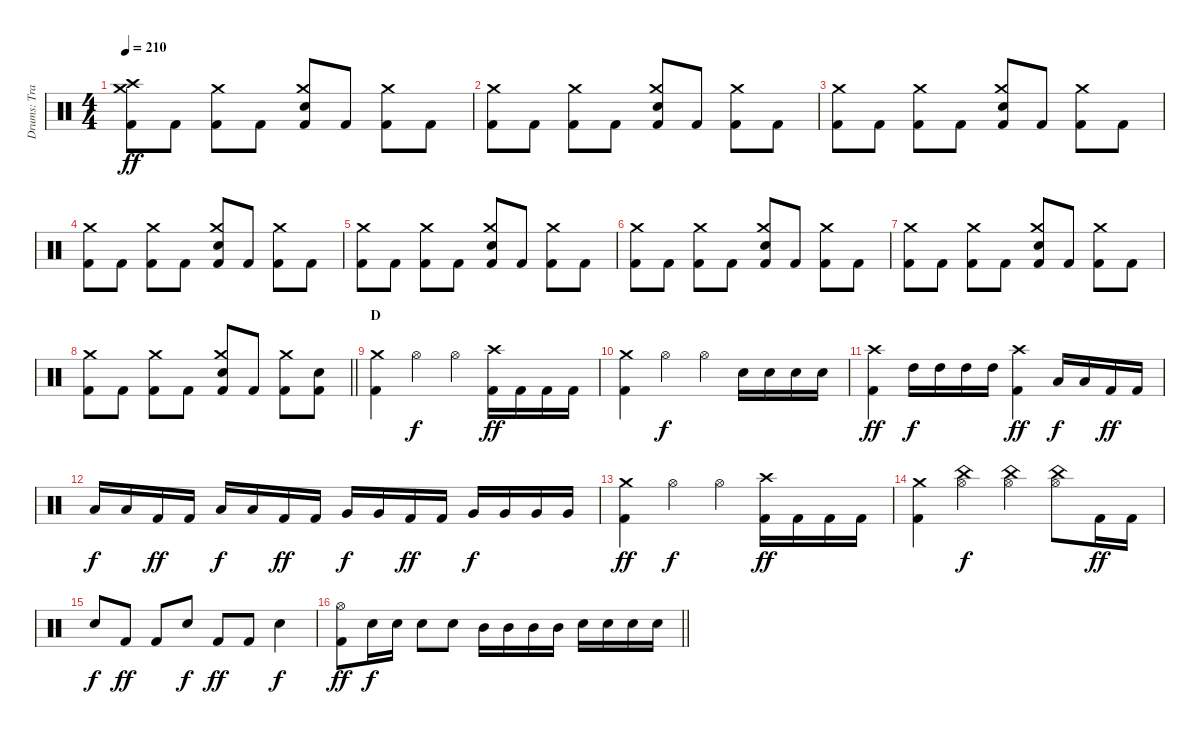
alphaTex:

\track ("Drums: Trav Clarke" "Drums: Tra") {instrument percussion}
\staff {score}
\articulation defaults
\ts (4 4)
\tempo 210
\clef neutral
\ks c
("Kick (hit) 2" "Crash high (hit)" "Crash medium (hit)").8{dy ff} "Kick (hit) 2".8 ("Kick (hit) 2" "Crash medium (hit)").8 "Kick (hit) 2".8 ("Kick (hit) 2" "Snare (hit) 2" "Crash medium (hit)").8 "Kick (hit) 2".8 ("Kick (hit) 2" "Crash medium (hit)").8 "Kick (hit) 2".8 |
("Kick (hit) 2" "Crash medium (hit)").8 "Kick (hit) 2".8 ("Kick (hit) 2" "Crash medium (hit)").8 "Kick (hit) 2".8 ("Kick (hit) 2" "Snare (hit) 2" "Crash medium (hit)").8 "Kick (hit) 2".8 ("Kick (hit) 2" "Crash medium (hit)").8 "Kick (hit) 2".8 |
("Kick (hit) 2" "Crash medium (hit)").8 "Kick (hit) 2".8 ("Kick (hit) 2" "Crash medium (hit)").8 "Kick (hit) 2".8 ("Kick (hit) 2" "Snare (hit) 2" "Crash medium (hit)").8 "Kick (hit) 2".8 ("Kick (hit) 2" "Crash medium (hit)").8 "Kick (hit) 2".8 |
("Kick (hit) 2" "Crash medium (hit)").8 "Kick (hit) 2".8 ("Kick (hit) 2" "Crash medium (hit)").8 "Kick (hit) 2".8 ("Kick (hit) 2" "Snare (hit) 2" "Crash medium (hit)").8 "Kick (hit) 2".8 ("Kick (hit) 2" "Crash medium (hit)").8 "Kick (hit) 2".8 |
("Kick (hit) 2" "Crash medium (hit)").8 "Kick (hit) 2".8 ("Kick (hit) 2" "Crash medium (hit)").8 "Kick (hit) 2".8 ("Kick (hit) 2" "Snare (hit) 2" "Crash medium (hit)").8 "Kick (hit) 2".8 ("Kick (hit) 2" "Crash medium (hit)").8 "Kick (hit) 2".8 |
("Kick (hit) 2" "Crash medium (hit)").8 "Kick (hit) 2".8 ("Kick (hit) 2" "Crash medium (hit)").8 "Kick (hit) 2".8 ("Kick (hit) 2" "Snare (hit) 2" "Crash medium (hit)").8 "Kick (hit) 2".8 ("Kick (hit) 2" "Crash medium (hit)").8 "Kick (hit) 2".8 |
("Kick (hit) 2" "Crash medium (hit)").8 "Kick (hit) 2".8 ("Kick (hit) 2" "Crash medium (hit)").8 "Kick (hit) 2".8 ("Kick (hit) 2" "Snare (hit) 2" "Crash medium (hit)").8 "Kick (hit) 2".8 ("Kick (hit) 2" "Crash medium (hit)").8 "Kick (hit) 2".8 |
\barLineRight lightlight
("Kick (hit) 2" "Crash medium (hit)").8 "Kick (hit) 2".8 ("Kick (hit) 2" "Crash medium (hit)").8 "Kick (hit) 2".8 ("Kick (hit) 2" "Snare (hit) 2" "Crash medium (hit)").8 "Kick (hit) 2".8 ("Kick (hit) 2" "Crash medium (hit)").8 ("Kick (hit) 2" "Snare (hit) 2").8 |
\section ("" "D")
("Kick (hit) 2" "Crash medium (hit)").4 "Hi-Hat (open)".4{dy f} "Hi-Hat (open)".4 ("Kick (hit) 2" "Crash high (hit)").16{dy ff} "Kick (hit) 2".16 "Kick (hit) 2".16 "Kick (hit) 2".16 |
("Kick (hit) 2" "Crash medium (hit)").4 "Hi-Hat (open)".4{dy f} "Hi-Hat (open)".4 "Snare (hit) 2".16 "Snare (hit) 2".16 "Snare (hit) 2".16 "Snare (hit) 2".16 |
("Kick (hit) 2" "Crash high (hit)").4{dy ff} "High Tom (hit)".16{dy f} "High Tom (hit)".16 "High Tom (hit)".16 "High Tom (hit)".16 ("Kick (hit) 2" "Crash high (hit)").4{dy ff} "Low Tom (hit)".16{dy f} "Low Tom (hit)".16 "Kick (hit) 2".16{dy ff} "Kick (hit) 2".16 |
"Low Tom (hit)".16{dy f} "Low Tom (hit)".16 "Kick (hit) 2".16{dy ff} "Kick (hit) 2".16 "Low Tom (hit)".16{dy f} "Low Tom (hit)".16 "Kick (hit) 2".16{dy ff} "Kick (hit) 2".16 "Very Low Tom (hit)".16{dy f} "Very Low Tom (hit)".16 "Kick (hit) 2".16{dy ff} "Kick (hit) 2".16 "Very Low Tom (hit)".16{dy f} "Very Low Tom (hit)".16 "Very Low Tom (hit)".16 "Very Low Tom (hit)".16 |
("Kick (hit) 2" "Crash medium (hit)").4{dy ff} "Hi-Hat (open)".4{dy f} "Hi-Hat (open)".4 ("Kick (hit) 2" "Crash high (hit)").16{dy ff} "Kick (hit) 2".16 "Kick (hit) 2".16 "Kick (hit) 2".16 |
("Kick (hit) 2" "Crash medium (hit)").4 ("Hi-Hat (open)" "China (hit)").4{dy f} ("Hi-Hat (open)" "China (hit)").4 ("Hi-Hat (open)" "China (hit)").8 "Kick (hit) 2".16{dy ff} "Kick (hit) 2".16 |
"Snare (hit) 2".8{dy f} "Kick (hit) 2".8{dy ff} "Kick (hit) 2".8 "Snare (hit) 2".8{dy f} "Kick (hit) 2".8{dy ff} "Kick (hit) 2".8 "Snare (hit) 2".4{dy f} |
\barLineRight lightlight
("Kick (hit) 2" "Hi-Hat (open)").8{dy ff} "Snare (hit) 2".16{dy f} "Snare (hit) 2".16 "Snare (hit) 2".8 "Snare (hit) 2".8 "Mid Tom (hit)".16 "Mid Tom (hit)".16 "Mid Tom (hit)".16 "Mid Tom (hit)".16 "Snare (hit) 2".16 "Snare (hit) 2".16 "Snare (hit) 2".16 "Snare (hit) 2".16
